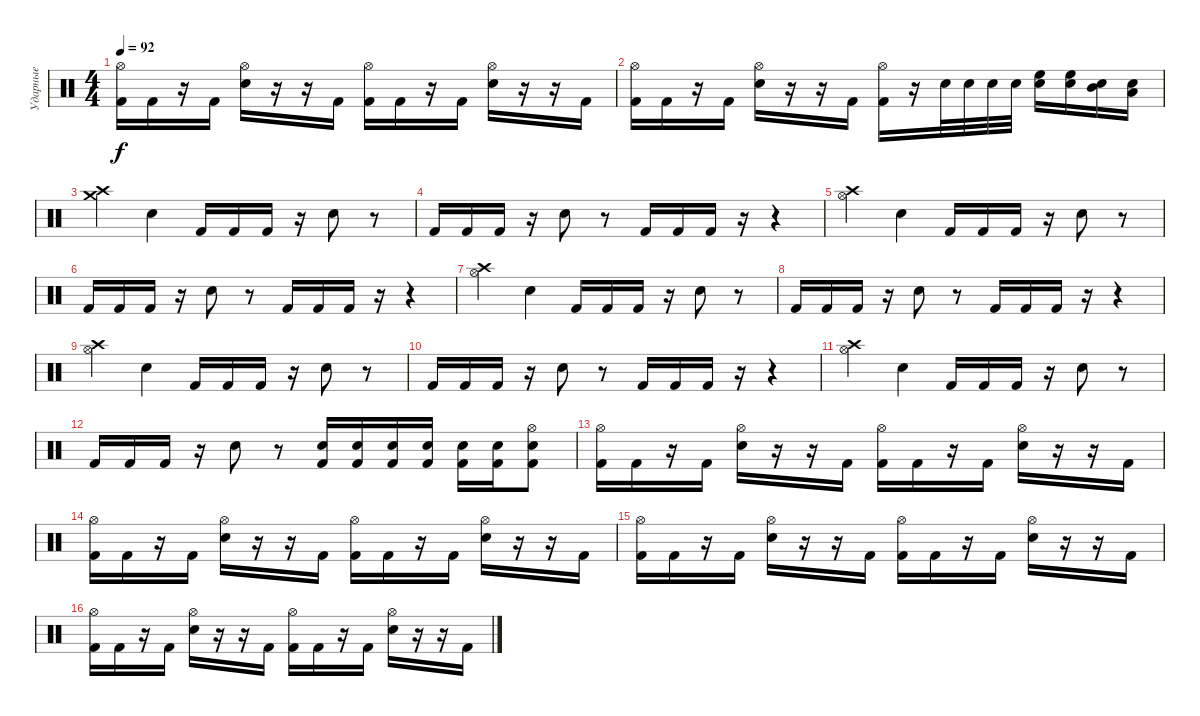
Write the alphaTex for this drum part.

\track ("Ударные" "Ударные") {instrument percussion}
\staff {score}
\articulation defaults
\ts (4 4)
\tempo 92
\clef neutral
\ks c
("Hi-Hat (open)" "Kick (hit) 2").16{dy f} "Kick (hit) 2".16 r.16 "Kick (hit) 2".16 ("Hi-Hat (open)" "Snare (hit) 2").16 r.16 r.16 "Kick (hit) 2".16 ("Hi-Hat (open)" "Kick (hit) 2").16 "Kick (hit) 2".16 r.16 "Kick (hit) 2".16 ("Hi-Hat (open)" "Snare (hit) 2").16 r.16 r.16 "Kick (hit) 2".16 |
("Hi-Hat (open)" "Kick (hit) 2").16 "Kick (hit) 2".16 r.16 "Kick (hit) 2".16 ("Hi-Hat (open)" "Snare (hit) 2").16 r.16 r.16 "Kick (hit) 2".16 ("Hi-Hat (open)" "Kick (hit) 2").16 r.16 "Snare (hit) 2".32 "Snare (hit) 2".32 "Snare (hit) 2".32 "Snare (hit) 2".32 ("High Floor Tom (hit)" "Snare (hit) 2").16 ("High Floor Tom (hit)" "Snare (hit) 2").16 ("Mid Tom (hit)" "Snare (hit) 2").16 ("Low Tom (hit)" "Snare (hit) 2").16 |
("Crash medium (hit)" "Crash high (hit)").4 "Snare (hit) 2".4 "Kick (hit) 2".16 "Kick (hit) 2".16 "Kick (hit) 2".16 r.16 "Snare (hit) 2".8 r.8 |
"Kick (hit) 2".16 "Kick (hit) 2".16 "Kick (hit) 2".16 r.16 "Snare (hit) 2".8 r.8 "Kick (hit) 2".16 "Kick (hit) 2".16 "Kick (hit) 2".16 r.16 r.4 |
("Hi-Hat (open)" "Crash high (hit)").4 "Snare (hit) 2".4 "Kick (hit) 2".16 "Kick (hit) 2".16 "Kick (hit) 2".16 r.16 "Snare (hit) 2".8 r.8 |
"Kick (hit) 2".16 "Kick (hit) 2".16 "Kick (hit) 2".16 r.16 "Snare (hit) 2".8 r.8 "Kick (hit) 2".16 "Kick (hit) 2".16 "Kick (hit) 2".16 r.16 r.4 |
("Hi-Hat (open)" "Crash high (hit)").4 "Snare (hit) 2".4 "Kick (hit) 2".16 "Kick (hit) 2".16 "Kick (hit) 2".16 r.16 "Snare (hit) 2".8 r.8 |
"Kick (hit) 2".16 "Kick (hit) 2".16 "Kick (hit) 2".16 r.16 "Snare (hit) 2".8 r.8 "Kick (hit) 2".16 "Kick (hit) 2".16 "Kick (hit) 2".16 r.16 r.4 |
("Hi-Hat (open)" "Crash high (hit)").4 "Snare (hit) 2".4 "Kick (hit) 2".16 "Kick (hit) 2".16 "Kick (hit) 2".16 r.16 "Snare (hit) 2".8 r.8 |
"Kick (hit) 2".16 "Kick (hit) 2".16 "Kick (hit) 2".16 r.16 "Snare (hit) 2".8 r.8 "Kick (hit) 2".16 "Kick (hit) 2".16 "Kick (hit) 2".16 r.16 r.4 |
("Hi-Hat (open)" "Crash high (hit)").4 "Snare (hit) 2".4 "Kick (hit) 2".16 "Kick (hit) 2".16 "Kick (hit) 2".16 r.16 "Snare (hit) 2".8 r.8 |
"Kick (hit) 2".16 "Kick (hit) 2".16 "Kick (hit) 2".16 r.16 "Snare (hit) 2".8 r.8 ("Snare (hit) 2" "Kick (hit) 2").16 ("Snare (hit) 2" "Kick (hit) 2").16 ("Snare (hit) 2" "Kick (hit) 2").16 ("Snare (hit) 2" "Kick (hit) 2").16 ("Snare (hit) 2" "Kick (hit) 2").16 ("Snare (hit) 2" "Kick (hit) 2").16 ("Hi-Hat (open)" "Snare (hit) 2" "Kick (hit) 2").8 |
("Hi-Hat (open)" "Kick (hit) 2").16 "Kick (hit) 2".16 r.16 "Kick (hit) 2".16 ("Hi-Hat (open)" "Snare (hit) 2").16 r.16 r.16 "Kick (hit) 2".16 ("Hi-Hat (open)" "Kick (hit) 2").16 "Kick (hit) 2".16 r.16 "Kick (hit) 2".16 ("Hi-Hat (open)" "Snare (hit) 2").16 r.16 r.16 "Kick (hit) 2".16 |
("Hi-Hat (open)" "Kick (hit) 2").16 "Kick (hit) 2".16 r.16 "Kick (hit) 2".16 ("Hi-Hat (open)" "Snare (hit) 2").16 r.16 r.16 "Kick (hit) 2".16 ("Hi-Hat (open)" "Kick (hit) 2").16 "Kick (hit) 2".16 r.16 "Kick (hit) 2".16 ("Hi-Hat (open)" "Snare (hit) 2").16 r.16 r.16 "Kick (hit) 2".16 |
("Hi-Hat (open)" "Kick (hit) 2").16 "Kick (hit) 2".16 r.16 "Kick (hit) 2".16 ("Hi-Hat (open)" "Snare (hit) 2").16 r.16 r.16 "Kick (hit) 2".16 ("Hi-Hat (open)" "Kick (hit) 2").16 "Kick (hit) 2".16 r.16 "Kick (hit) 2".16 ("Hi-Hat (open)" "Snare (hit) 2").16 r.16 r.16 "Kick (hit) 2".16 |
("Hi-Hat (open)" "Kick (hit) 2").16 "Kick (hit) 2".16 r.16 "Kick (hit) 2".16 ("Hi-Hat (open)" "Snare (hit) 2").16 r.16 r.16 "Kick (hit) 2".16 ("Hi-Hat (open)" "Kick (hit) 2").16 "Kick (hit) 2".16 r.16 "Kick (hit) 2".16 ("Hi-Hat (open)" "Snare (hit) 2").16 r.16 r.16 "Kick (hit) 2".16
